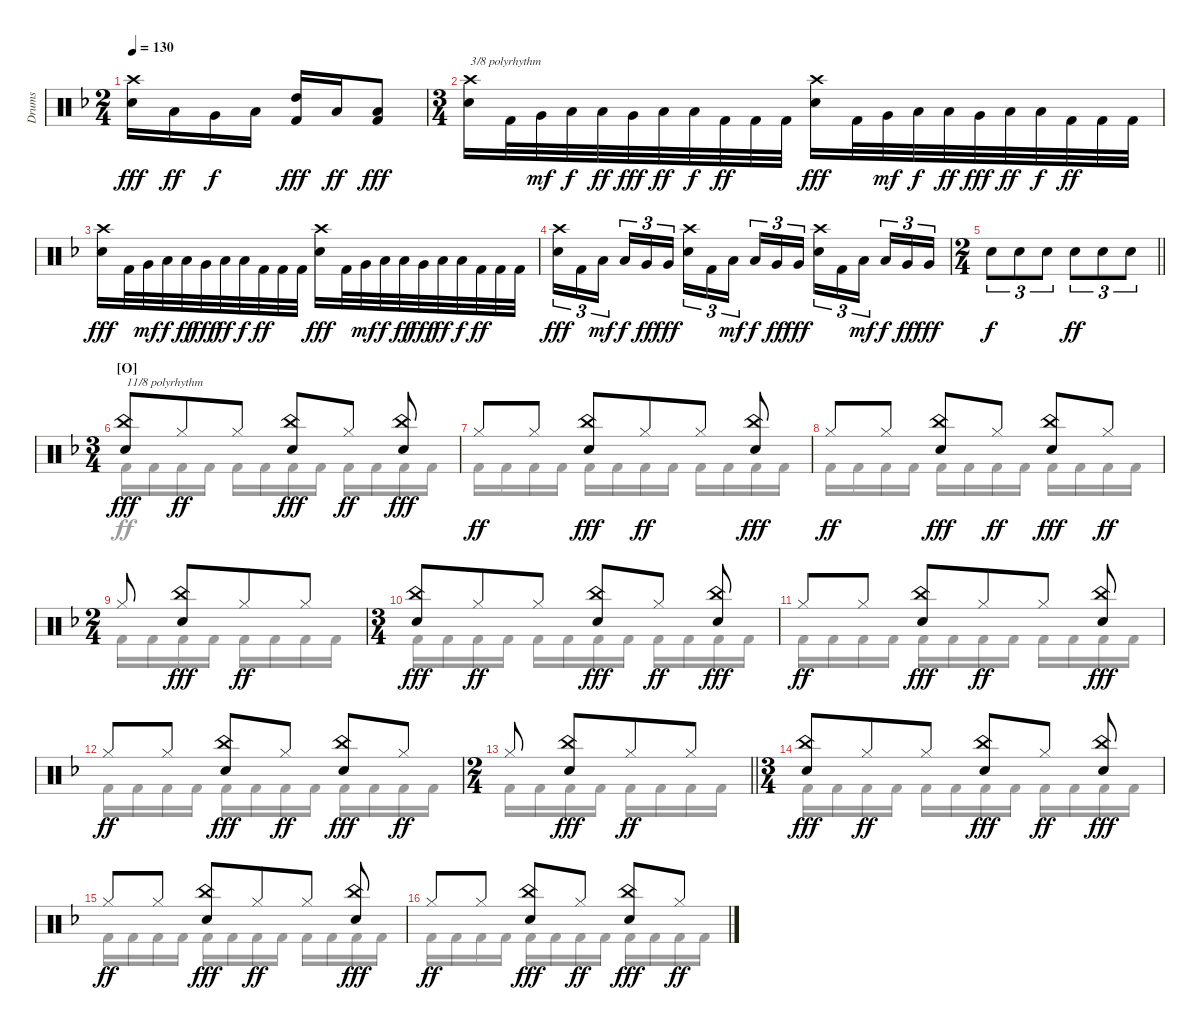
\track ("Drums" "Drums") {instrument percussion}
\staff {score}
\articulation defaults
\voice
\ts (2 4)
\tempo 130
\clef neutral
\ks dminor
("Crash high (hit)" "Snare (hit) 2").16{dy fff} "Low Tom (hit)".16{dy ff} "Very Low Tom (hit)".16{dy f} "Low Floor Tom (hit)".16 ("High Tom (hit)" "Kick (hit) 2").16{dy fff} "Low Tom (hit)".16{dy ff} ("Low Floor Tom (hit)" "Kick (hit) 2").8{dy fff} |
\ts (3 4)
("Crash high (hit)" "Snare (hit) 2").16{txt "3/8 polyrhythm"} "Kick (hit) 2".32 "Very Low Tom (hit)".32{dy mf} "Low Tom (hit)".32{dy f} "Low Tom (hit)".32{dy ff} "Very Low Tom (hit)".32{dy fff} "Low Tom (hit)".32{dy ff beam merge} "Low Tom (hit)".32{dy f} "Kick (hit) 2".32{dy ff} "Kick (hit) 2".32 "Kick (hit) 2".32{beam split} ("Crash high (hit)" "Snare (hit) 2").16{dy fff} "Kick (hit) 2".32 "Very Low Tom (hit)".32{dy mf beam merge} "Low Tom (hit)".32{dy f} "Low Tom (hit)".32{dy ff} "Very Low Tom (hit)".32{dy fff} "Low Tom (hit)".32{dy ff} "Low Tom (hit)".32{dy f} "Kick (hit) 2".32{dy ff} "Kick (hit) 2".32 "Kick (hit) 2".32 |
("Crash high (hit)" "Snare (hit) 2").16{dy fff} "Kick (hit) 2".32 "Very Low Tom (hit)".32{dy mf} "Low Tom (hit)".32{dy f} "Low Tom (hit)".32{dy ff} "Very Low Tom (hit)".32{dy fff} "Low Tom (hit)".32{dy ff beam merge} "Low Tom (hit)".32{dy f} "Kick (hit) 2".32{dy ff} "Kick (hit) 2".32 "Kick (hit) 2".32{beam split} ("Crash high (hit)" "Snare (hit) 2").16{dy fff} "Kick (hit) 2".32 "Very Low Tom (hit)".32{dy mf beam merge} "Low Tom (hit)".32{dy f} "Low Tom (hit)".32{dy ff} "Very Low Tom (hit)".32{dy fff} "Low Tom (hit)".32{dy ff} "Low Tom (hit)".32{dy f} "Kick (hit) 2".32{dy ff} "Kick (hit) 2".32 "Kick (hit) 2".32 |
("Crash high (hit)" "Snare (hit) 2").16{tu (3 2) dy fff} "Kick (hit) 2".16{tu (3 2)} "Low Tom (hit)".16{tu (3 2) dy mf beam splitsecondary} "Low Tom (hit)".16{tu (3 2) dy f} "Very Low Tom (hit)".16{tu (3 2) dy ff} "Very Low Tom (hit)".16{tu (3 2) dy fff} ("Crash high (hit)" "Snare (hit) 2").16{tu (3 2)} "Kick (hit) 2".16{tu (3 2)} "Low Tom (hit)".16{tu (3 2) dy mf beam splitsecondary} "Low Tom (hit)".16{tu (3 2) dy f} "Very Low Tom (hit)".16{tu (3 2) dy ff} "Very Low Tom (hit)".16{tu (3 2) dy fff} ("Crash high (hit)" "Snare (hit) 2").16{tu (3 2)} "Kick (hit) 2".16{tu (3 2)} "Low Tom (hit)".16{tu (3 2) dy mf beam splitsecondary} "Low Tom (hit)".16{tu (3 2) dy f} "Very Low Tom (hit)".16{tu (3 2) dy ff} "Very Low Tom (hit)".16{tu (3 2) dy fff} |
\ts (2 4)
\barLineRight lightlight "Snare (hit) 2".8{tu (3 2) dy f} "Snare (hit) 2".8{tu (3 2)} "Snare (hit) 2".8{tu (3 2)} "Snare (hit) 2".8{tu (3 2) dy ff} "Snare (hit) 2".8{tu (3 2)} "Snare (hit) 2".8{tu (3 2)}
|
\ts (3 4)
\section ("" "[O]")
("China (hit)" "Snare (hit) 2").8{txt "11/8 polyrhythm" dy fff} "Hi-Hat (closed)".8{dy ff beam merge} "Hi-Hat (closed)".8{beam split} ("China (hit)" "Snare (hit) 2").8{dy fff beam merge} "Hi-Hat (closed)".8{dy ff beam split} ("China (hit)" "Snare (hit) 2").8{dy fff} |
"Hi-Hat (closed)".8{dy ff} "Hi-Hat (closed)".8 ("China (hit)" "Snare (hit) 2").8{dy fff} "Hi-Hat (closed)".8{dy ff beam merge} "Hi-Hat (closed)".8{beam split} ("China (hit)" "Snare (hit) 2").8{dy fff} |
"Hi-Hat (closed)".8{dy ff} "Hi-Hat (closed)".8 ("China (hit)" "Snare (hit) 2").8{dy fff} "Hi-Hat (closed)".8{dy ff} ("China (hit)" "Snare (hit) 2").8{dy fff} "Hi-Hat (closed)".8{dy ff} |
\ts (2 4)
"Hi-Hat (closed)".8{beam split} ("China (hit)" "Snare (hit) 2").8{dy fff beam merge} "Hi-Hat (closed)".8{dy ff} "Hi-Hat (closed)".8 |
\ts (3 4)
("China (hit)" "Snare (hit) 2").8{dy fff} "Hi-Hat (closed)".8{dy ff beam merge} "Hi-Hat (closed)".8{beam split} ("China (hit)" "Snare (hit) 2").8{dy fff beam merge} "Hi-Hat (closed)".8{dy ff beam split} ("China (hit)" "Snare (hit) 2").8{dy fff} |
"Hi-Hat (closed)".8{dy ff} "Hi-Hat (closed)".8 ("China (hit)" "Snare (hit) 2").8{dy fff} "Hi-Hat (closed)".8{dy ff beam merge} "Hi-Hat (closed)".8{beam split} ("China (hit)" "Snare (hit) 2").8{dy fff} |
"Hi-Hat (closed)".8{dy ff} "Hi-Hat (closed)".8 ("China (hit)" "Snare (hit) 2").8{dy fff} "Hi-Hat (closed)".8{dy ff} ("China (hit)" "Snare (hit) 2").8{dy fff} "Hi-Hat (closed)".8{dy ff} |
\ts (2 4)
\barLineRight lightlight "Hi-Hat (closed)".8{beam split}
("China (hit)" "Snare (hit) 2").8{dy fff beam merge} "Hi-Hat (closed)".8{dy ff} "Hi-Hat (closed)".8 |
\ts (3 4)
("China (hit)" "Snare (hit) 2").8{dy fff} "Hi-Hat (closed)".8{dy ff beam merge} "Hi-Hat (closed)".8{beam split} ("China (hit)" "Snare (hit) 2").8{dy fff beam merge} "Hi-Hat (closed)".8{dy ff beam split} ("China (hit)" "Snare (hit) 2").8{dy fff} |
"Hi-Hat (closed)".8{dy ff} "Hi-Hat (closed)".8 ("China (hit)" "Snare (hit) 2").8{dy fff} "Hi-Hat (closed)".8{dy ff beam merge} "Hi-Hat (closed)".8{beam split} ("China (hit)" "Snare (hit) 2").8{dy fff} |
"Hi-Hat (closed)".8{dy ff} "Hi-Hat (closed)".8 ("China (hit)" "Snare (hit) 2").8{dy fff} "Hi-Hat (closed)".8{dy ff} ("China (hit)" "Snare (hit) 2").8{dy fff} "Hi-Hat (closed)".8{dy ff}
\voice
\clef neutral
\ottava regular
\simile none
\ks dminor
|
|
|
|
\barLineRight lightlight
|
"Kick (hit) 2".16 "Kick (hit) 2".16 "Kick (hit) 2".16 "Kick (hit) 2".16 "Kick (hit) 2".16 "Kick (hit) 2".16 "Kick (hit) 2".16 "Kick (hit) 2".16 "Kick (hit) 2".16 "Kick (hit) 2".16 "Kick (hit) 2".16 "Kick (hit) 2".16 |
"Kick (hit) 2".16 "Kick (hit) 2".16 "Kick (hit) 2".16 "Kick (hit) 2".16 "Kick (hit) 2".16 "Kick (hit) 2".16 "Kick (hit) 2".16 "Kick (hit) 2".16 "Kick (hit) 2".16 "Kick (hit) 2".16 "Kick (hit) 2".16 "Kick (hit) 2".16 |
"Kick (hit) 2".16 "Kick (hit) 2".16 "Kick (hit) 2".16 "Kick (hit) 2".16 "Kick (hit) 2".16 "Kick (hit) 2".16 "Kick (hit) 2".16 "Kick (hit) 2".16 "Kick (hit) 2".16 "Kick (hit) 2".16 "Kick (hit) 2".16 "Kick (hit) 2".16 |
"Kick (hit) 2".16 "Kick (hit) 2".16 "Kick (hit) 2".16 "Kick (hit) 2".16 "Kick (hit) 2".16 "Kick (hit) 2".16 "Kick (hit) 2".16 "Kick (hit) 2".16 |
"Kick (hit) 2".16 "Kick (hit) 2".16 "Kick (hit) 2".16 "Kick (hit) 2".16 "Kick (hit) 2".16 "Kick (hit) 2".16 "Kick (hit) 2".16 "Kick (hit) 2".16 "Kick (hit) 2".16 "Kick (hit) 2".16 "Kick (hit) 2".16 "Kick (hit) 2".16 |
"Kick (hit) 2".16 "Kick (hit) 2".16 "Kick (hit) 2".16 "Kick (hit) 2".16 "Kick (hit) 2".16 "Kick (hit) 2".16 "Kick (hit) 2".16 "Kick (hit) 2".16 "Kick (hit) 2".16 "Kick (hit) 2".16 "Kick (hit) 2".16 "Kick (hit) 2".16 |
"Kick (hit) 2".16 "Kick (hit) 2".16 "Kick (hit) 2".16 "Kick (hit) 2".16 "Kick (hit) 2".16 "Kick (hit) 2".16 "Kick (hit) 2".16 "Kick (hit) 2".16 "Kick (hit) 2".16 "Kick (hit) 2".16 "Kick (hit) 2".16 "Kick (hit) 2".16 |
\barLineRight lightlight "Kick (hit) 2".16 "Kick (hit) 2".16 "Kick (hit) 2".16 "Kick (hit) 2".16 "Kick (hit) 2".16 "Kick (hit) 2".16 "Kick (hit) 2".16 "Kick (hit) 2".16
|
"Kick (hit) 2".16 "Kick (hit) 2".16 "Kick (hit) 2".16 "Kick (hit) 2".16 "Kick (hit) 2".16 "Kick (hit) 2".16 "Kick (hit) 2".16 "Kick (hit) 2".16 "Kick (hit) 2".16 "Kick (hit) 2".16 "Kick (hit) 2".16 "Kick (hit) 2".16 |
"Kick (hit) 2".16 "Kick (hit) 2".16 "Kick (hit) 2".16 "Kick (hit) 2".16 "Kick (hit) 2".16 "Kick (hit) 2".16 "Kick (hit) 2".16 "Kick (hit) 2".16 "Kick (hit) 2".16 "Kick (hit) 2".16 "Kick (hit) 2".16 "Kick (hit) 2".16 |
"Kick (hit) 2".16 "Kick (hit) 2".16 "Kick (hit) 2".16 "Kick (hit) 2".16 "Kick (hit) 2".16 "Kick (hit) 2".16 "Kick (hit) 2".16 "Kick (hit) 2".16 "Kick (hit) 2".16 "Kick (hit) 2".16 "Kick (hit) 2".16 "Kick (hit) 2".16
